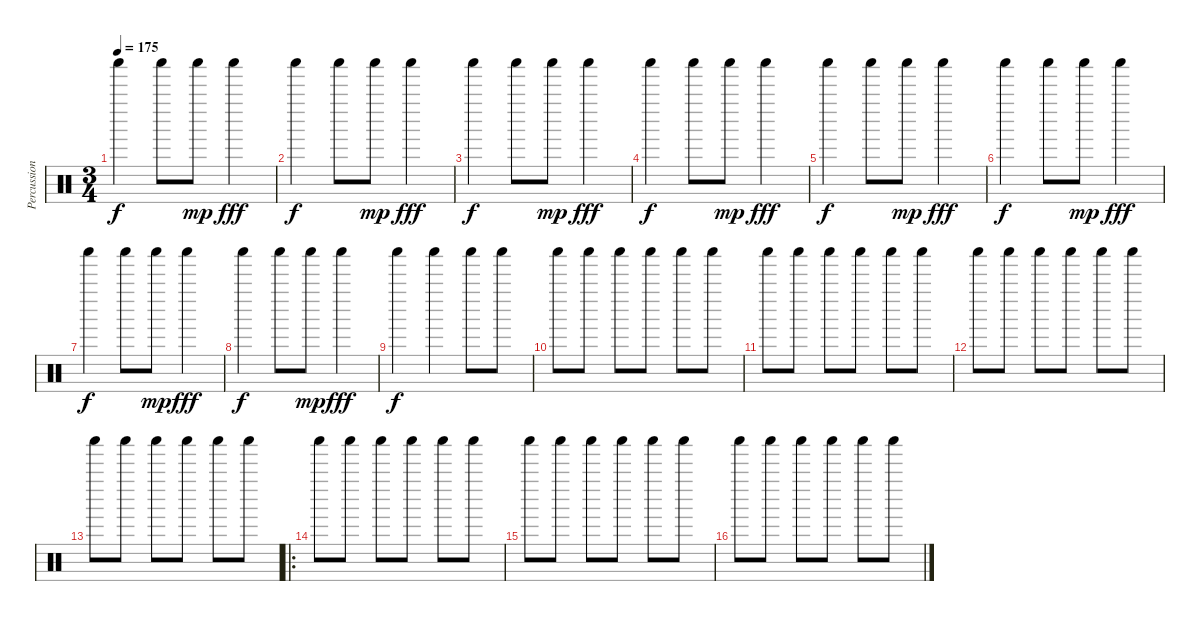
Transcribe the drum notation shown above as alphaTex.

\track ("Percussion" "Percussion") {instrument percussion}
\staff {score}
\articulation defaults
\ts (3 4)
\tempo 175
\clef neutral
\ks c "Shaker (hit)".4{dy f} "Shaker (hit)".8 "Shaker (hit)".8{dy mp} "Shaker (hit)".4{dy fff}
|
"Shaker (hit)".4{dy f} "Shaker (hit)".8 "Shaker (hit)".8{dy mp} "Shaker (hit)".4{dy fff} |
"Shaker (hit)".4{dy f} "Shaker (hit)".8 "Shaker (hit)".8{dy mp} "Shaker (hit)".4{dy fff} |
"Shaker (hit)".4{dy f} "Shaker (hit)".8 "Shaker (hit)".8{dy mp} "Shaker (hit)".4{dy fff} |
"Shaker (hit)".4{dy f} "Shaker (hit)".8 "Shaker (hit)".8{dy mp} "Shaker (hit)".4{dy fff} |
"Shaker (hit)".4{dy f} "Shaker (hit)".8 "Shaker (hit)".8{dy mp} "Shaker (hit)".4{dy fff} |
"Shaker (hit)".4{dy f} "Shaker (hit)".8 "Shaker (hit)".8{dy mp} "Shaker (hit)".4{dy fff} |
"Shaker (hit)".4{dy f} "Shaker (hit)".8 "Shaker (hit)".8{dy mp} "Shaker (hit)".4{dy fff} |
"Shaker (hit)".4{dy f} "Shaker (hit)".4 "Shaker (hit)".8 "Shaker (hit)".8 |
"Shaker (hit)".8 "Shaker (hit)".8 "Shaker (hit)".8 "Shaker (hit)".8 "Shaker (hit)".8 "Shaker (hit)".8 |
"Shaker (hit)".8 "Shaker (hit)".8 "Shaker (hit)".8 "Shaker (hit)".8 "Shaker (hit)".8 "Shaker (hit)".8 |
"Shaker (hit)".8 "Shaker (hit)".8 "Shaker (hit)".8 "Shaker (hit)".8 "Shaker (hit)".8 "Shaker (hit)".8 |
"Shaker (hit)".8 "Shaker (hit)".8 "Shaker (hit)".8 "Shaker (hit)".8 "Shaker (hit)".8 "Shaker (hit)".8 |
\ro "Shaker (hit)".8 "Shaker (hit)".8 "Shaker (hit)".8 "Shaker (hit)".8 "Shaker (hit)".8 "Shaker (hit)".8
|
"Shaker (hit)".8 "Shaker (hit)".8 "Shaker (hit)".8 "Shaker (hit)".8 "Shaker (hit)".8 "Shaker (hit)".8 |
"Shaker (hit)".8 "Shaker (hit)".8 "Shaker (hit)".8 "Shaker (hit)".8 "Shaker (hit)".8 "Shaker (hit)".8
